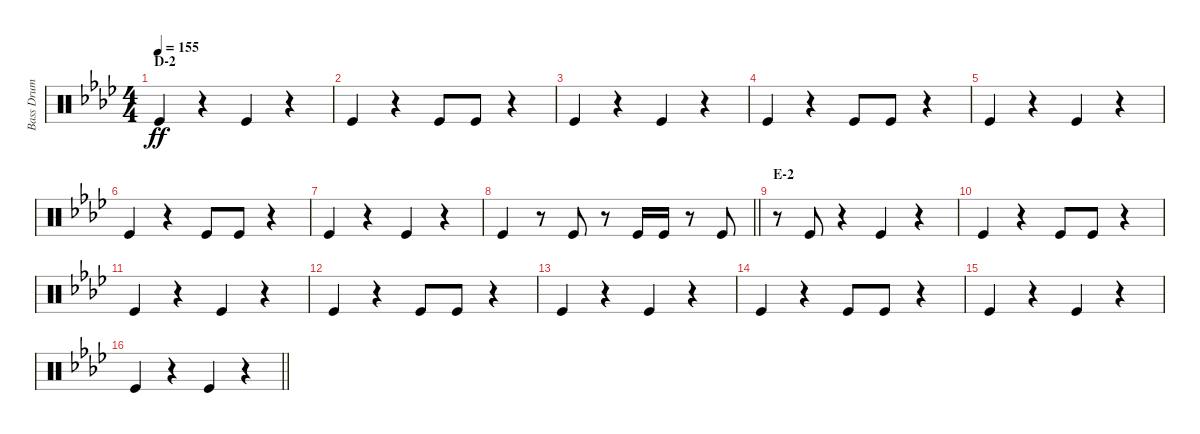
\track ("Bass Drum" "Bass Drum") {instrument percussion}
\staff {score}
\articulation defaults
\ts (4 4)
\section ("" "D-2")
\tempo 155
\clef neutral
\ks ab "Kick (hit)".4{dy ff}
r.4 "Kick (hit)".4 r.4 |
"Kick (hit)".4 r.4 "Kick (hit)".8 "Kick (hit)".8 r.4 |
"Kick (hit)".4 r.4 "Kick (hit)".4 r.4 |
"Kick (hit)".4 r.4 "Kick (hit)".8 "Kick (hit)".8 r.4 |
"Kick (hit)".4 r.4 "Kick (hit)".4 r.4 |
"Kick (hit)".4 r.4 "Kick (hit)".8 "Kick (hit)".8 r.4 |
"Kick (hit)".4 r.4 "Kick (hit)".4 r.4 |
\barLineRight lightlight "Kick (hit)".4
r.8 "Kick (hit)".8 r.8 "Kick (hit)".16 "Kick (hit)".16 r.8 "Kick (hit)".8 |
\section ("" "E-2")
r.8 "Kick (hit)".8 r.4 "Kick (hit)".4 r.4 |
"Kick (hit)".4 r.4 "Kick (hit)".8 "Kick (hit)".8 r.4 |
"Kick (hit)".4 r.4 "Kick (hit)".4 r.4 |
"Kick (hit)".4 r.4 "Kick (hit)".8 "Kick (hit)".8 r.4 |
"Kick (hit)".4 r.4 "Kick (hit)".4 r.4 |
"Kick (hit)".4 r.4 "Kick (hit)".8 "Kick (hit)".8 r.4 |
"Kick (hit)".4 r.4 "Kick (hit)".4 r.4 |
\barLineRight lightlight "Kick (hit)".4
r.4 "Kick (hit)".4 r.4
